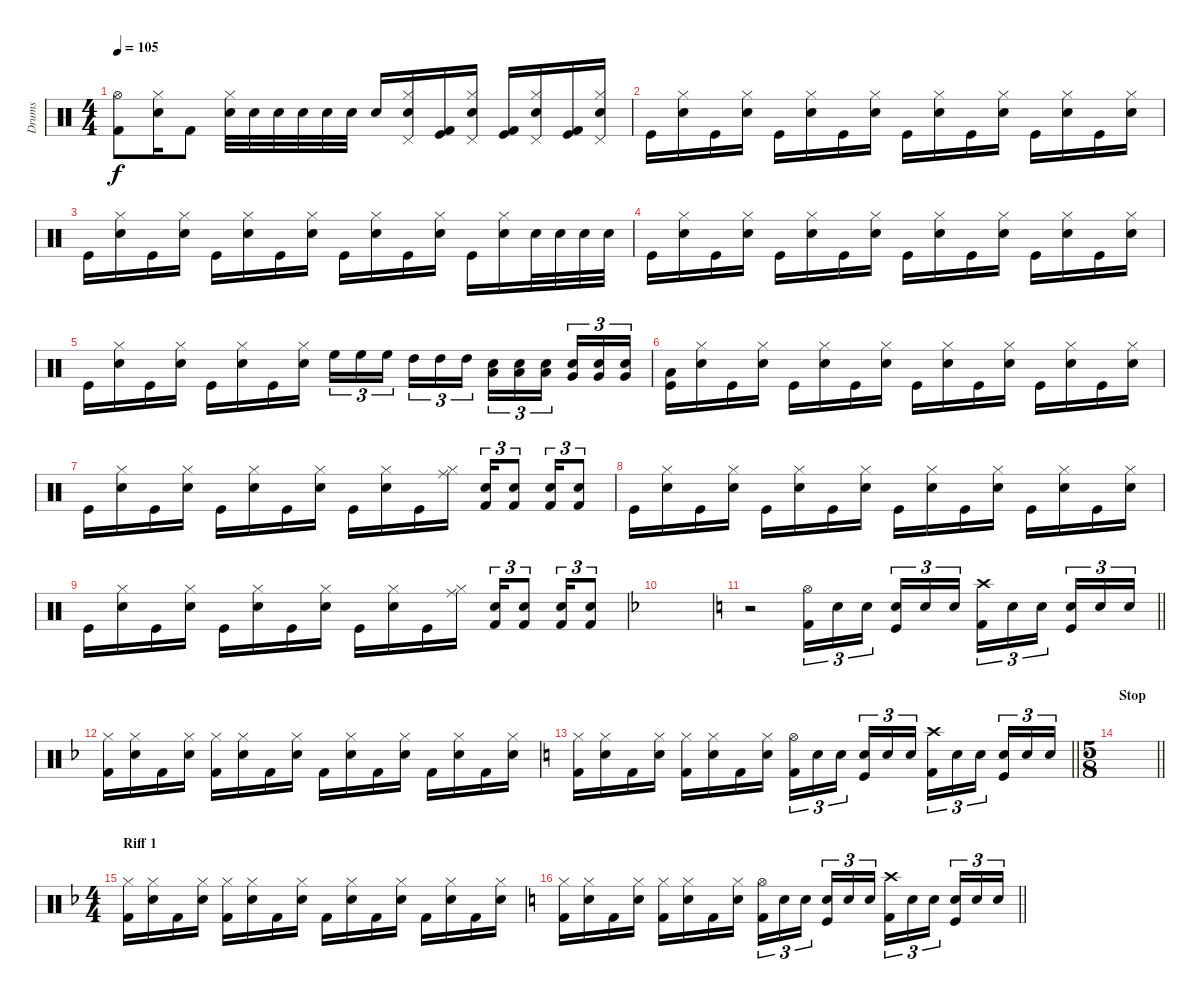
\track ("Drums" "Drums") {instrument percussion}
\staff {score}
\articulation defaults
\ts (4 4)
\tempo 105
\clef neutral
\ks c
("Hi-Hat (open)" "Kick (hit) 2").8{dy f} ("Snare (hit) 2" "Hi-Hat (closed)").16 "Kick (hit) 2".8 ("Hi-Hat (closed)" "Snare (hit) 2").32 "Snare (hit) 2".32 "Snare (hit) 2".32 "Snare (hit) 2".32 "Snare (hit) 2".32 "Snare (hit) 2".32 "Snare (hit) 2".16 ("Pedal Hi-Hat (hit)" "Snare (hit) 2" "Hi-Hat (closed)").16 ("Kick (hit) 2" "Kick (hit)").16 ("Pedal Hi-Hat (hit)" "Snare (hit) 2" "Hi-Hat (closed)").16 ("Kick (hit) 2" "Kick (hit)").16 ("Pedal Hi-Hat (hit)" "Snare (hit) 2" "Hi-Hat (closed)").16 ("Kick (hit) 2" "Kick (hit)").16 ("Pedal Hi-Hat (hit)" "Snare (hit) 2" "Hi-Hat (closed)").16 |
"Kick (hit)".16 ("Hi-Hat (closed)" "Snare (hit) 2").16 "Kick (hit)".16 ("Snare (hit) 2" "Hi-Hat (closed)").16 "Kick (hit)".16 ("Snare (hit) 2" "Hi-Hat (closed)").16 "Kick (hit)".16 ("Snare (hit) 2" "Hi-Hat (closed)").16 "Kick (hit)".16 ("Snare (hit) 2" "Hi-Hat (closed)").16 "Kick (hit)".16 ("Snare (hit) 2" "Hi-Hat (closed)").16 "Kick (hit)".16 ("Snare (hit) 2" "Hi-Hat (closed)").16 "Kick (hit)".16 ("Snare (hit) 2" "Hi-Hat (closed)").16 |
"Kick (hit)".16 ("Hi-Hat (closed)" "Snare (hit) 2").16 "Kick (hit)".16 ("Snare (hit) 2" "Hi-Hat (closed)").16 "Kick (hit)".16 ("Snare (hit) 2" "Hi-Hat (closed)").16 "Kick (hit)".16 ("Snare (hit) 2" "Hi-Hat (closed)").16 "Kick (hit)".16 ("Snare (hit) 2" "Hi-Hat (closed)").16 "Kick (hit)".16 ("Snare (hit) 2" "Hi-Hat (closed)").16 "Kick (hit)".16 ("Snare (hit) 2" "Hi-Hat (closed)").16 "Snare (hit) 2".32 "Snare (hit) 2".32 "Snare (hit) 2".32 "Snare (hit) 2".32 |
"Kick (hit)".16 ("Hi-Hat (closed)" "Snare (hit) 2").16 "Kick (hit)".16 ("Snare (hit) 2" "Hi-Hat (closed)").16 "Kick (hit)".16 ("Snare (hit) 2" "Hi-Hat (closed)").16 "Kick (hit)".16 ("Snare (hit) 2" "Hi-Hat (closed)").16 "Kick (hit)".16 ("Snare (hit) 2" "Hi-Hat (closed)").16 "Kick (hit)".16 ("Snare (hit) 2" "Hi-Hat (closed)").16 "Kick (hit)".16 ("Snare (hit) 2" "Hi-Hat (closed)").16 "Kick (hit)".16 ("Snare (hit) 2" "Hi-Hat (closed)").16 |
"Kick (hit)".16 ("Hi-Hat (closed)" "Snare (hit) 2").16 "Kick (hit)".16 ("Snare (hit) 2" "Hi-Hat (closed)").16 "Kick (hit)".16 ("Snare (hit) 2" "Hi-Hat (closed)").16 "Kick (hit)".16 ("Snare (hit) 2" "Hi-Hat (closed)").16 "High Floor Tom (hit)".16{tu (3 2)} "High Floor Tom (hit)".16{tu (3 2)} "High Floor Tom (hit)".16{tu (3 2) beam splitsecondary} "High Tom (hit)".16{tu (3 2)} "High Tom (hit)".16{tu (3 2)} "High Tom (hit)".16{tu (3 2)} ("Snare (hit) 2" "Low Tom (hit)").16{tu (3 2)} ("Snare (hit) 2" "Low Tom (hit)").16{tu (3 2)} ("Snare (hit) 2" "Low Tom (hit)").16{tu (3 2) beam splitsecondary} ("Snare (hit) 2" "Very Low Tom (hit)").16{tu (3 2)} ("Snare (hit) 2" "Very Low Tom (hit)").16{tu (3 2)} ("Snare (hit) 2" "Very Low Tom (hit)").16{tu (3 2)} |
("Low Tom (hit)" "Kick (hit)").16 ("Hi-Hat (closed)" "Snare (hit) 2").16 "Kick (hit)".16 ("Snare (hit) 2" "Hi-Hat (closed)").16 "Kick (hit)".16 ("Snare (hit) 2" "Hi-Hat (closed)").16 "Kick (hit)".16 ("Snare (hit) 2" "Hi-Hat (closed)").16 "Kick (hit)".16 ("Snare (hit) 2" "Hi-Hat (closed)").16 "Kick (hit)".16 ("Snare (hit) 2" "Hi-Hat (closed)").16 "Kick (hit)".16 ("Snare (hit) 2" "Hi-Hat (closed)").16 "Kick (hit)".16 ("Snare (hit) 2" "Hi-Hat (closed)").16 |
"Kick (hit)".16 ("Hi-Hat (closed)" "Snare (hit) 2").16 "Kick (hit)".16 ("Snare (hit) 2" "Hi-Hat (closed)").16 "Kick (hit)".16 ("Snare (hit) 2" "Hi-Hat (closed)").16 "Kick (hit)".16 ("Snare (hit) 2" "Hi-Hat (closed)").16 "Kick (hit)".16 ("Snare (hit) 2" "Hi-Hat (closed)").16 "Kick (hit)".16 ("Ride (middle)" "Hi-Hat (closed)").16 ("Snare (hit) 2" "Kick (hit) 2").16{tu (3 2)} ("Snare (hit) 2" "Kick (hit) 2").8{tu (3 2)} ("Snare (hit) 2" "Kick (hit) 2").16{tu (3 2)} ("Snare (hit) 2" "Kick (hit) 2").8{tu (3 2)} |
"Kick (hit)".16 ("Hi-Hat (closed)" "Snare (hit) 2").16 "Kick (hit)".16 ("Snare (hit) 2" "Hi-Hat (closed)").16 "Kick (hit)".16 ("Snare (hit) 2" "Hi-Hat (closed)").16 "Kick (hit)".16 ("Snare (hit) 2" "Hi-Hat (closed)").16 "Kick (hit)".16 ("Snare (hit) 2" "Hi-Hat (closed)").16 "Kick (hit)".16 ("Snare (hit) 2" "Hi-Hat (closed)").16 "Kick (hit)".16 ("Snare (hit) 2" "Hi-Hat (closed)").16 "Kick (hit)".16 ("Snare (hit) 2" "Hi-Hat (closed)").16 |
"Kick (hit)".16 ("Hi-Hat (closed)" "Snare (hit) 2").16 "Kick (hit)".16 ("Snare (hit) 2" "Hi-Hat (closed)").16 "Kick (hit)".16 ("Snare (hit) 2" "Hi-Hat (closed)").16 "Kick (hit)".16 ("Snare (hit) 2" "Hi-Hat (closed)").16 "Kick (hit)".16 ("Snare (hit) 2" "Hi-Hat (closed)").16 "Kick (hit)".16 ("Ride (middle)" "Hi-Hat (closed)").16 ("Snare (hit) 2" "Kick (hit) 2").16{tu (3 2)} ("Snare (hit) 2" "Kick (hit) 2").8{tu (3 2)} ("Snare (hit) 2" "Kick (hit) 2").16{tu (3 2)} ("Snare (hit) 2" "Kick (hit) 2").8{tu (3 2)} |
\ks f
|
\barLineRight lightlight
\ks c
r.2 ("Hi-Hat (open)" "Kick (hit) 2").16{tu (3 2)} "Snare (hit) 2".16{tu (3 2)} "Snare (hit) 2".16{tu (3 2) beam splitsecondary} ("Kick (hit)" "Snare (hit) 2").16{tu (3 2)} "Snare (hit) 2".16{tu (3 2)} "Snare (hit) 2".16{tu (3 2)} ("Crash high (hit)" "Kick (hit) 2").16{tu (3 2)} "Snare (hit) 2".16{tu (3 2)} "Snare (hit) 2".16{tu (3 2) beam splitsecondary} ("Kick (hit)" "Snare (hit) 2").16{tu (3 2)} "Snare (hit) 2".16{tu (3 2)} "Snare (hit) 2".16{tu (3 2)} |
\ks f
("Hi-Hat (closed)" "Kick (hit) 2").16 ("Hi-Hat (closed)" "Snare (hit) 2").16 "Kick (hit) 2".16 ("Hi-Hat (closed)" "Snare (hit) 2").16 ("Hi-Hat (closed)" "Kick (hit) 2").16 ("Hi-Hat (closed)" "Snare (hit) 2").16 "Kick (hit) 2".16 ("Hi-Hat (closed)" "Snare (hit) 2").16 "Kick (hit) 2".16 ("Hi-Hat (closed)" "Snare (hit) 2").16 "Kick (hit) 2".16 ("Hi-Hat (closed)" "Snare (hit) 2").16 "Kick (hit) 2".16 ("Hi-Hat (closed)" "Snare (hit) 2").16 "Kick (hit) 2".16 ("Hi-Hat (closed)" "Snare (hit) 2").16 |
\barLineRight lightlight
\ks c
("Hi-Hat (closed)" "Kick (hit) 2").16 ("Hi-Hat (closed)" "Snare (hit) 2").16 "Kick (hit) 2".16 ("Hi-Hat (closed)" "Snare (hit) 2").16 ("Hi-Hat (closed)" "Kick (hit) 2").16 ("Hi-Hat (closed)" "Snare (hit) 2").16 "Kick (hit) 2".16 ("Hi-Hat (closed)" "Snare (hit) 2").16 ("Hi-Hat (open)" "Kick (hit) 2").16{tu (3 2)} "Snare (hit) 2".16{tu (3 2)} "Snare (hit) 2".16{tu (3 2) beam splitsecondary} ("Kick (hit)" "Snare (hit) 2").16{tu (3 2)} "Snare (hit) 2".16{tu (3 2)} "Snare (hit) 2".16{tu (3 2)} ("Crash high (hit)" "Kick (hit) 2").16{tu (3 2)} "Snare (hit) 2".16{tu (3 2)} "Snare (hit) 2".16{tu (3 2) beam splitsecondary} ("Kick (hit)" "Snare (hit) 2").16{tu (3 2)} "Snare (hit) 2".16{tu (3 2)} "Snare (hit) 2".16{tu (3 2)} |
\ts (5 8)
\section ("" "Stop")
\barLineRight lightlight
|
\ts (4 4)
\section ("" "Riff 1")
\ks f
("Hi-Hat (closed)" "Kick (hit) 2").16 ("Hi-Hat (closed)" "Snare (hit) 2").16 "Kick (hit) 2".16 ("Hi-Hat (closed)" "Snare (hit) 2").16 ("Hi-Hat (closed)" "Kick (hit) 2").16 ("Hi-Hat (closed)" "Snare (hit) 2").16 "Kick (hit) 2".16 ("Hi-Hat (closed)" "Snare (hit) 2").16 "Kick (hit) 2".16 ("Hi-Hat (closed)" "Snare (hit) 2").16 "Kick (hit) 2".16 ("Hi-Hat (closed)" "Snare (hit) 2").16 "Kick (hit) 2".16 ("Hi-Hat (closed)" "Snare (hit) 2").16 "Kick (hit) 2".16 ("Hi-Hat (closed)" "Snare (hit) 2").16 |
\barLineRight lightlight
\ks c
("Hi-Hat (closed)" "Kick (hit) 2").16 ("Hi-Hat (closed)" "Snare (hit) 2").16 "Kick (hit) 2".16 ("Hi-Hat (closed)" "Snare (hit) 2").16 ("Hi-Hat (closed)" "Kick (hit) 2").16 ("Hi-Hat (closed)" "Snare (hit) 2").16 "Kick (hit) 2".16 ("Hi-Hat (closed)" "Snare (hit) 2").16 ("Hi-Hat (open)" "Kick (hit) 2").16{tu (3 2)} "Snare (hit) 2".16{tu (3 2)} "Snare (hit) 2".16{tu (3 2) beam splitsecondary} ("Kick (hit)" "Snare (hit) 2").16{tu (3 2)} "Snare (hit) 2".16{tu (3 2)} "Snare (hit) 2".16{tu (3 2)} ("Crash high (hit)" "Kick (hit) 2").16{tu (3 2)} "Snare (hit) 2".16{tu (3 2)} "Snare (hit) 2".16{tu (3 2) beam splitsecondary} ("Kick (hit)" "Snare (hit) 2").16{tu (3 2)} "Snare (hit) 2".16{tu (3 2)} "Snare (hit) 2".16{tu (3 2)}
